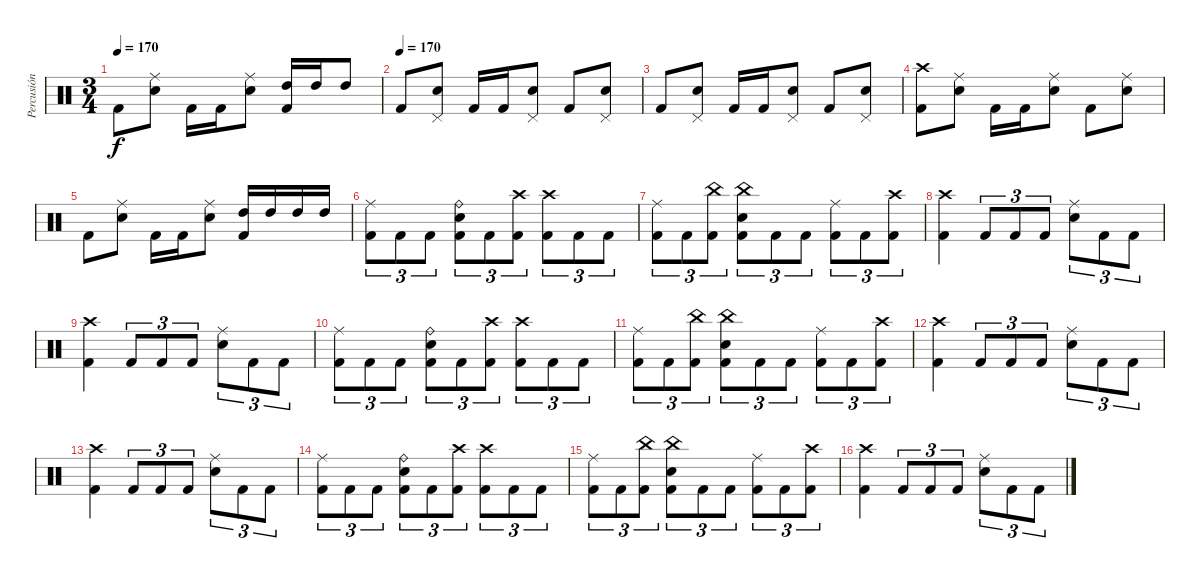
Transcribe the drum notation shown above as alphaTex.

\track ("Percusión" "Percusión") {instrument percussion}
\staff {score}
\articulation defaults
\ts (3 4)
\tempo 170
\clef neutral
\ks c "Kick (hit) 2".8{dy f}
("Ride (middle)" "Snare (hit) 2").8 "Kick (hit) 2".16 "Kick (hit) 2".16 ("Ride (middle)" "Snare (hit) 2").8 ("High Tom (hit)" "Kick (hit) 2").16 "High Tom (hit)".16 "High Tom (hit)".8 |
\tempo (170)
"Kick (hit) 2".8 ("Pedal Hi-Hat (hit)" "Snare (hit) 2").8 "Kick (hit) 2".16 "Kick (hit) 2".16 ("Pedal Hi-Hat (hit)" "Snare (hit) 2").8 "Kick (hit) 2".8 ("Pedal Hi-Hat (hit)" "Snare (hit) 2").8 |
"Kick (hit) 2".8 ("Pedal Hi-Hat (hit)" "Snare (hit) 2").8 "Kick (hit) 2".16 "Kick (hit) 2".16 ("Pedal Hi-Hat (hit)" "Snare (hit) 2").8 "Kick (hit) 2".8 ("Pedal Hi-Hat (hit)" "Snare (hit) 2").8 |
("Crash high (hit)" "Kick (hit) 2").8 ("Ride (middle)" "Snare (hit) 2").8 "Kick (hit) 2".16 "Kick (hit) 2".16 ("Ride (middle)" "Snare (hit) 2").8 "Kick (hit) 2".8 ("Ride (middle)" "Snare (hit) 2").8 |
"Kick (hit) 2".8 ("Ride (middle)" "Snare (hit) 2").8 "Kick (hit) 2".16 "Kick (hit) 2".16 ("Ride (middle)" "Snare (hit) 2").8 ("High Tom (hit)" "Kick (hit) 2").16 "High Tom (hit)".16 "High Tom (hit)".16 "High Tom (hit)".16 |
("Ride (middle)" "Kick (hit) 2").8{tu (3 2)} "Kick (hit) 2".8{tu (3 2)} "Kick (hit) 2".8{tu (3 2)} ("Ride (bell)" "Snare (hit) 2" "Kick (hit) 2").8{tu (3 2)} "Kick (hit) 2".8{tu (3 2)} ("Crash high (hit)" "Kick (hit) 2").8{tu (3 2)} ("Crash high (hit)" "Kick (hit) 2").8{tu (3 2)} "Kick (hit) 2".8{tu (3 2)} "Kick (hit) 2".8{tu (3 2)} |
("Ride (middle)" "Kick (hit) 2").8{tu (3 2)} "Kick (hit) 2".8{tu (3 2)} ("China (hit)" "Kick (hit) 2").8{tu (3 2)} ("China (hit)" "Snare (hit) 2" "Kick (hit) 2").8{tu (3 2)} "Kick (hit) 2".8{tu (3 2)} "Kick (hit) 2".8{tu (3 2)} ("Ride (middle)" "Kick (hit) 2").8{tu (3 2)} "Kick (hit) 2".8{tu (3 2)} ("Crash high (hit)" "Kick (hit) 2").8{tu (3 2)} |
("Crash high (hit)" "Kick (hit) 2").4 "Kick (hit) 2".8{tu (3 2)} "Kick (hit) 2".8{tu (3 2)} "Kick (hit) 2".8{tu (3 2)} ("Ride (middle)" "Snare (hit) 2").8{tu (3 2)} "Kick (hit) 2".8{tu (3 2)} "Kick (hit) 2".8{tu (3 2)} |
("Crash high (hit)" "Kick (hit) 2").4 "Kick (hit) 2".8{tu (3 2)} "Kick (hit) 2".8{tu (3 2)} "Kick (hit) 2".8{tu (3 2)} ("Ride (middle)" "Snare (hit) 2").8{tu (3 2)} "Kick (hit) 2".8{tu (3 2)} "Kick (hit) 2".8{tu (3 2)} |
("Ride (middle)" "Kick (hit) 2").8{tu (3 2)} "Kick (hit) 2".8{tu (3 2)} "Kick (hit) 2".8{tu (3 2)} ("Ride (bell)" "Snare (hit) 2" "Kick (hit) 2").8{tu (3 2)} "Kick (hit) 2".8{tu (3 2)} ("Crash high (hit)" "Kick (hit) 2").8{tu (3 2)} ("Crash high (hit)" "Kick (hit) 2").8{tu (3 2)} "Kick (hit) 2".8{tu (3 2)} "Kick (hit) 2".8{tu (3 2)} |
("Ride (middle)" "Kick (hit) 2").8{tu (3 2)} "Kick (hit) 2".8{tu (3 2)} ("China (hit)" "Kick (hit) 2").8{tu (3 2)} ("China (hit)" "Snare (hit) 2" "Kick (hit) 2").8{tu (3 2)} "Kick (hit) 2".8{tu (3 2)} "Kick (hit) 2".8{tu (3 2)} ("Ride (middle)" "Kick (hit) 2").8{tu (3 2)} "Kick (hit) 2".8{tu (3 2)} ("Crash high (hit)" "Kick (hit) 2").8{tu (3 2)} |
("Crash high (hit)" "Kick (hit) 2").4 "Kick (hit) 2".8{tu (3 2)} "Kick (hit) 2".8{tu (3 2)} "Kick (hit) 2".8{tu (3 2)} ("Ride (middle)" "Snare (hit) 2").8{tu (3 2)} "Kick (hit) 2".8{tu (3 2)} "Kick (hit) 2".8{tu (3 2)} |
("Crash high (hit)" "Kick (hit) 2").4 "Kick (hit) 2".8{tu (3 2)} "Kick (hit) 2".8{tu (3 2)} "Kick (hit) 2".8{tu (3 2)} ("Ride (middle)" "Snare (hit) 2").8{tu (3 2)} "Kick (hit) 2".8{tu (3 2)} "Kick (hit) 2".8{tu (3 2)} |
("Ride (middle)" "Kick (hit) 2").8{tu (3 2)} "Kick (hit) 2".8{tu (3 2)} "Kick (hit) 2".8{tu (3 2)} ("Ride (bell)" "Snare (hit) 2" "Kick (hit) 2").8{tu (3 2)} "Kick (hit) 2".8{tu (3 2)} ("Crash high (hit)" "Kick (hit) 2").8{tu (3 2)} ("Crash high (hit)" "Kick (hit) 2").8{tu (3 2)} "Kick (hit) 2".8{tu (3 2)} "Kick (hit) 2".8{tu (3 2)} |
("Ride (middle)" "Kick (hit) 2").8{tu (3 2)} "Kick (hit) 2".8{tu (3 2)} ("China (hit)" "Kick (hit) 2").8{tu (3 2)} ("China (hit)" "Snare (hit) 2" "Kick (hit) 2").8{tu (3 2)} "Kick (hit) 2".8{tu (3 2)} "Kick (hit) 2".8{tu (3 2)} ("Ride (middle)" "Kick (hit) 2").8{tu (3 2)} "Kick (hit) 2".8{tu (3 2)} ("Crash high (hit)" "Kick (hit) 2").8{tu (3 2)} |
("Crash high (hit)" "Kick (hit) 2").4 "Kick (hit) 2".8{tu (3 2)} "Kick (hit) 2".8{tu (3 2)} "Kick (hit) 2".8{tu (3 2)} ("Ride (middle)" "Snare (hit) 2").8{tu (3 2)} "Kick (hit) 2".8{tu (3 2)} "Kick (hit) 2".8{tu (3 2)}
